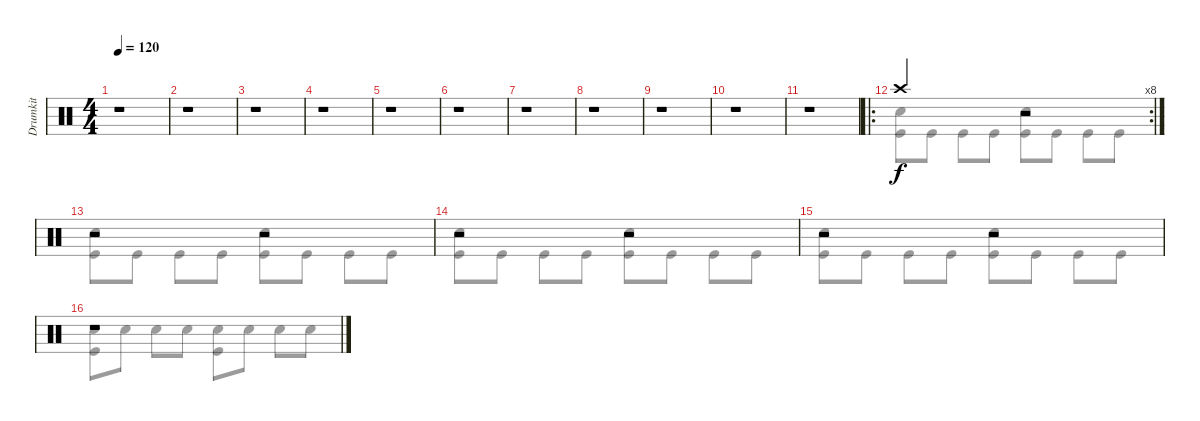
\track ("Drumkit" "Drumkit") {instrument percussion}
\staff {score}
\articulation defaults
\voice
\ts (4 4)
\tempo 120
\clef neutral
\ks c
r.1{dy f} |
r.1 |
r.1 |
r.1 |
r.1 |
r.1 |
r.1 |
r.1 |
r.1 |
r.1 |
r.1 |
\ro
\rc 8 "Crash high (hit)".2
r.2 |
r.2 r.2 |
r.2 r.2 |
r.2 r.2 |
r.1
\voice
\clef neutral
\ottava regular
\simile none
\ks c
|
|
|
|
|
|
|
|
|
|
|
("Snare (hit) 2" "Kick (hit)").8 "Kick (hit)".8 "Kick (hit)".8 "Kick (hit)".8 ("Snare (hit) 2" "Kick (hit)").8 "Kick (hit)".8 "Kick (hit)".8 "Kick (hit)".8 |
("Snare (hit) 2" "Kick (hit)").8 "Kick (hit)".8 "Kick (hit)".8 "Kick (hit)".8 ("Snare (hit) 2" "Kick (hit)").8 "Kick (hit)".8 "Kick (hit)".8 "Kick (hit)".8 |
("Snare (hit) 2" "Kick (hit)").8 "Kick (hit)".8 "Kick (hit)".8 "Kick (hit)".8 ("Snare (hit) 2" "Kick (hit)").8 "Kick (hit)".8 "Kick (hit)".8 "Kick (hit)".8 |
("Snare (hit) 2" "Kick (hit)").8 "Kick (hit)".8 "Kick (hit)".8 "Kick (hit)".8 ("Snare (hit) 2" "Kick (hit)").8 "Kick (hit)".8 "Kick (hit)".8 "Kick (hit)".8 |
("Snare (hit) 2" "Kick (hit)").8 "Snare (hit) 2".8 "Snare (hit) 2".8 "Snare (hit) 2".8 ("Snare (hit) 2" "Kick (hit)").8 "Snare (hit) 2".8 "Snare (hit) 2".8 "Snare (hit) 2".8
